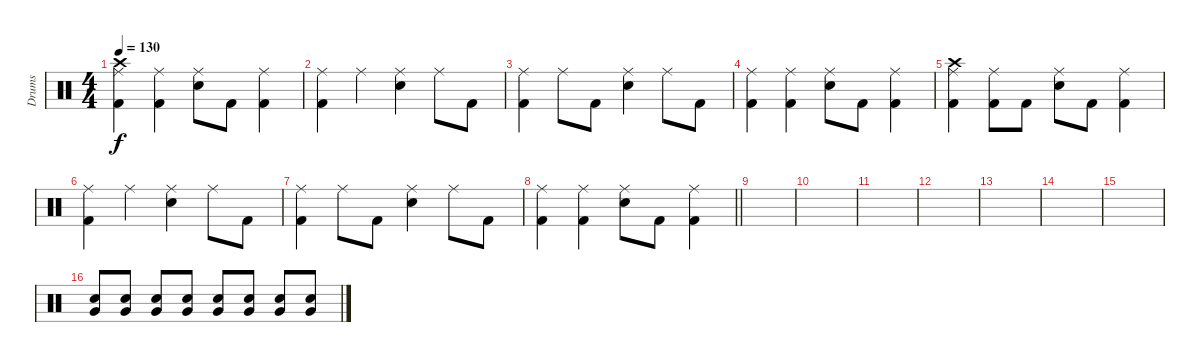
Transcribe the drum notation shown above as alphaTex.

\track ("Drums" "Drums") {instrument percussion}
\staff {score}
\articulation defaults
\ts (4 4)
\tempo 130
\clef neutral
\ks c
("Ride (middle)" "Crash high (hit)" "Kick (hit) 2").4{dy f} ("Ride (middle)" "Kick (hit) 2").4 ("Ride (middle)" "Electric Snare (hit)").8 "Kick (hit) 2".8 ("Ride (middle)" "Kick (hit) 2").4 |
("Ride (middle)" "Kick (hit) 2").4 "Ride (middle)".4 ("Ride (middle)" "Electric Snare (hit)").4 "Ride (middle)".8 "Kick (hit) 2".8 |
("Ride (middle)" "Kick (hit) 2").4 "Ride (middle)".8 "Kick (hit) 2".8 ("Ride (middle)" "Electric Snare (hit)").4 "Ride (middle)".8 "Kick (hit) 2".8 |
("Ride (middle)" "Kick (hit) 2").4 ("Ride (middle)" "Kick (hit) 2").4 ("Ride (middle)" "Electric Snare (hit)").8 "Kick (hit) 2".8 ("Ride (middle)" "Kick (hit) 2").4 |
("Ride (middle)" "Crash high (hit)" "Kick (hit) 2").4 ("Ride (middle)" "Kick (hit) 2").8 "Kick (hit) 2".8 ("Ride (middle)" "Electric Snare (hit)").8 "Kick (hit) 2".8 ("Ride (middle)" "Kick (hit) 2").4 |
("Ride (middle)" "Kick (hit) 2").4 "Ride (middle)".4 ("Ride (middle)" "Electric Snare (hit)").4 "Ride (middle)".8 "Kick (hit) 2".8 |
("Ride (middle)" "Kick (hit) 2").4 "Ride (middle)".8 "Kick (hit) 2".8 ("Ride (middle)" "Electric Snare (hit)").4 "Ride (middle)".8 "Kick (hit) 2".8 |
\barLineRight lightlight
("Ride (middle)" "Kick (hit) 2").4 ("Ride (middle)" "Kick (hit) 2").4 ("Ride (middle)" "Electric Snare (hit)").8 "Kick (hit) 2".8 ("Ride (middle)" "Kick (hit) 2").4 |
|
|
|
|
|
|
|
("Very Low Tom (hit)" "Electric Snare (hit)").8 ("Very Low Tom (hit)" "Electric Snare (hit)").8 ("Very Low Tom (hit)" "Electric Snare (hit)").8 ("Very Low Tom (hit)" "Electric Snare (hit)").8 ("Very Low Tom (hit)" "Electric Snare (hit)").8 ("Very Low Tom (hit)" "Electric Snare (hit)").8 ("Very Low Tom (hit)" "Electric Snare (hit)").8 ("Very Low Tom (hit)" "Electric Snare (hit)").8
